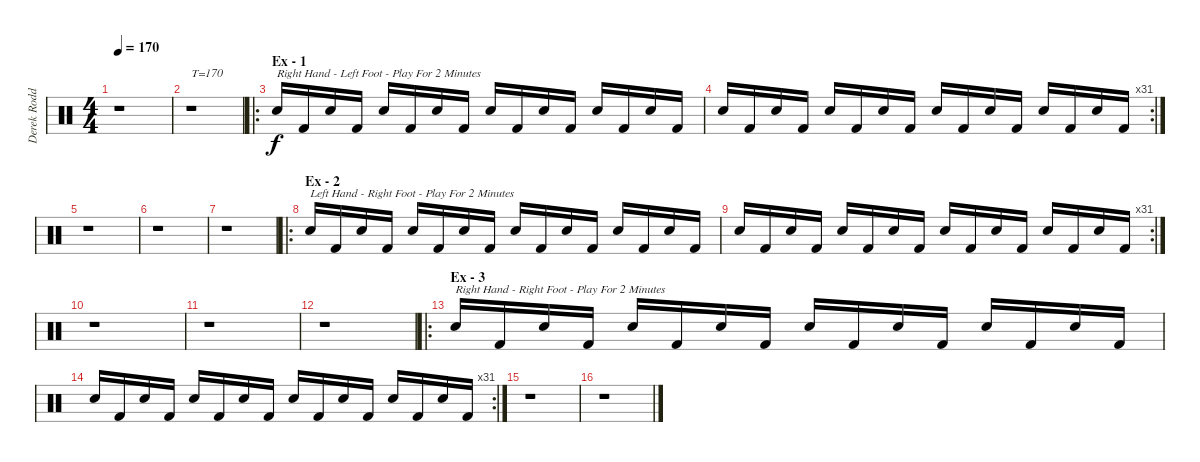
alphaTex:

\track ("Derek Roddy" "Derek Rodd") {instrument percussion}
\staff {score}
\articulation defaults
\ts (4 4)
\tempo 170
\clef neutral
\ks c
r.1{dy f} |
r.1{txt "T=170"} |
\ro
\section ("" "Ex - 1")
"Electric Snare (hit)".16{txt "Right Hand - Left Foot - Play For 2 Minutes"} "Kick (hit) 2".16 "Electric Snare (hit)".16 "Kick (hit) 2".16 "Electric Snare (hit)".16 "Kick (hit) 2".16 "Electric Snare (hit)".16 "Kick (hit) 2".16 "Electric Snare (hit)".16 "Kick (hit) 2".16 "Electric Snare (hit)".16 "Kick (hit) 2".16 "Electric Snare (hit)".16 "Kick (hit) 2".16 "Electric Snare (hit)".16 "Kick (hit) 2".16 |
\rc 31 "Electric Snare (hit)".16 "Kick (hit) 2".16 "Electric Snare (hit)".16 "Kick (hit) 2".16 "Electric Snare (hit)".16 "Kick (hit) 2".16 "Electric Snare (hit)".16 "Kick (hit) 2".16 "Electric Snare (hit)".16 "Kick (hit) 2".16 "Electric Snare (hit)".16 "Kick (hit) 2".16 "Electric Snare (hit)".16 "Kick (hit) 2".16 "Electric Snare (hit)".16 "Kick (hit) 2".16
|
r.1 |
r.1 |
r.1 |
\ro
\section ("" "Ex - 2")
"Electric Snare (hit)".16{txt "Left Hand - Right Foot - Play For 2 Minutes"} "Kick (hit) 2".16 "Electric Snare (hit)".16 "Kick (hit) 2".16 "Electric Snare (hit)".16 "Kick (hit) 2".16 "Electric Snare (hit)".16 "Kick (hit) 2".16 "Electric Snare (hit)".16 "Kick (hit) 2".16 "Electric Snare (hit)".16 "Kick (hit) 2".16 "Electric Snare (hit)".16 "Kick (hit) 2".16 "Electric Snare (hit)".16 "Kick (hit) 2".16 |
\rc 31 "Electric Snare (hit)".16 "Kick (hit) 2".16 "Electric Snare (hit)".16 "Kick (hit) 2".16 "Electric Snare (hit)".16 "Kick (hit) 2".16 "Electric Snare (hit)".16 "Kick (hit) 2".16 "Electric Snare (hit)".16 "Kick (hit) 2".16 "Electric Snare (hit)".16 "Kick (hit) 2".16 "Electric Snare (hit)".16 "Kick (hit) 2".16 "Electric Snare (hit)".16 "Kick (hit) 2".16
|
r.1 |
r.1 |
r.1 |
\ro
\section ("" "Ex - 3")
"Electric Snare (hit)".16{txt "Right Hand - Right Foot - Play For 2 Minutes"} "Kick (hit) 2".16 "Electric Snare (hit)".16 "Kick (hit) 2".16 "Electric Snare (hit)".16 "Kick (hit) 2".16 "Electric Snare (hit)".16 "Kick (hit) 2".16 "Electric Snare (hit)".16 "Kick (hit) 2".16 "Electric Snare (hit)".16 "Kick (hit) 2".16 "Electric Snare (hit)".16 "Kick (hit) 2".16 "Electric Snare (hit)".16 "Kick (hit) 2".16 |
\rc 31 "Electric Snare (hit)".16 "Kick (hit) 2".16 "Electric Snare (hit)".16 "Kick (hit) 2".16 "Electric Snare (hit)".16 "Kick (hit) 2".16 "Electric Snare (hit)".16 "Kick (hit) 2".16 "Electric Snare (hit)".16 "Kick (hit) 2".16 "Electric Snare (hit)".16 "Kick (hit) 2".16 "Electric Snare (hit)".16 "Kick (hit) 2".16 "Electric Snare (hit)".16 "Kick (hit) 2".16
|
r.1 |
r.1
